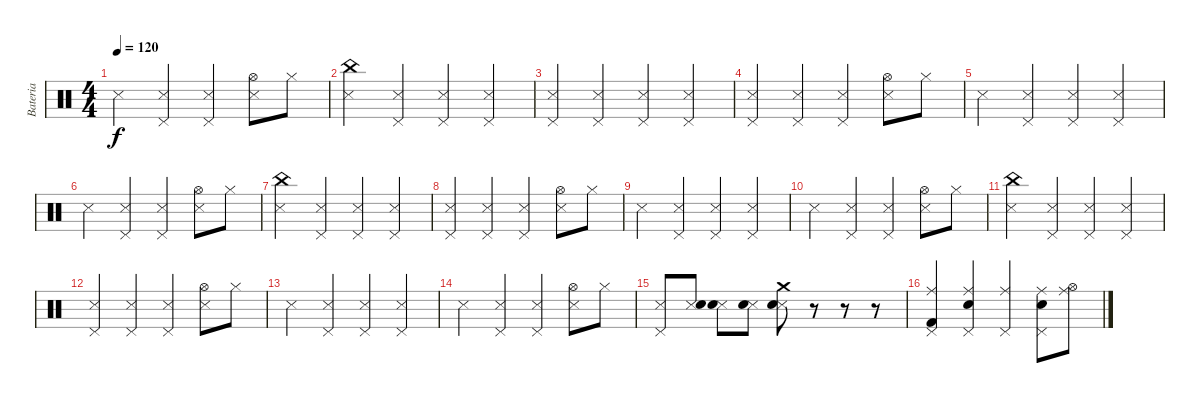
\track ("Bateria" "Bateria") {instrument percussion}
\staff {score}
\articulation defaults
\ts (4 4)
\tempo 120
\clef neutral
\ks c "Snare (side stick) 3".4{dy f}
("Snare (side stick) 3" "Pedal Hi-Hat (hit)").4 ("Snare (side stick) 3" "Pedal Hi-Hat (hit)").4 ("Snare (side stick) 3" "Hi-Hat (open)").8 "Hi-Hat (closed)".8 |
("Snare (side stick) 3" "China (hit)").4 ("Snare (side stick) 3" "Pedal Hi-Hat (hit)").4 ("Snare (side stick) 3" "Pedal Hi-Hat (hit)").4 ("Snare (side stick) 3" "Pedal Hi-Hat (hit)").4 |
("Snare (side stick) 3" "Pedal Hi-Hat (hit)").4 ("Snare (side stick) 3" "Pedal Hi-Hat (hit)").4 ("Snare (side stick) 3" "Pedal Hi-Hat (hit)").4 ("Snare (side stick) 3" "Pedal Hi-Hat (hit)").4 |
("Snare (side stick) 3" "Pedal Hi-Hat (hit)").4 ("Snare (side stick) 3" "Pedal Hi-Hat (hit)").4 ("Snare (side stick) 3" "Pedal Hi-Hat (hit)").4 ("Snare (side stick) 3" "Hi-Hat (open)").8 "Hi-Hat (closed)".8 |
"Snare (side stick) 3".4 ("Snare (side stick) 3" "Pedal Hi-Hat (hit)").4 ("Snare (side stick) 3" "Pedal Hi-Hat (hit)").4 ("Snare (side stick) 3" "Pedal Hi-Hat (hit)").4 |
"Snare (side stick) 3".4 ("Snare (side stick) 3" "Pedal Hi-Hat (hit)").4 ("Snare (side stick) 3" "Pedal Hi-Hat (hit)").4 ("Snare (side stick) 3" "Hi-Hat (open)").8 "Hi-Hat (closed)".8 |
("Snare (side stick) 3" "China (hit)").4 ("Snare (side stick) 3" "Pedal Hi-Hat (hit)").4 ("Snare (side stick) 3" "Pedal Hi-Hat (hit)").4 ("Snare (side stick) 3" "Pedal Hi-Hat (hit)").4 |
("Snare (side stick) 3" "Pedal Hi-Hat (hit)").4 ("Snare (side stick) 3" "Pedal Hi-Hat (hit)").4 ("Snare (side stick) 3" "Pedal Hi-Hat (hit)").4 ("Snare (side stick) 3" "Hi-Hat (open)").8 "Hi-Hat (closed)".8 |
"Snare (side stick) 3".4 ("Snare (side stick) 3" "Pedal Hi-Hat (hit)").4 ("Snare (side stick) 3" "Pedal Hi-Hat (hit)").4 ("Snare (side stick) 3" "Pedal Hi-Hat (hit)").4 |
"Snare (side stick) 3".4 ("Snare (side stick) 3" "Pedal Hi-Hat (hit)").4 ("Snare (side stick) 3" "Pedal Hi-Hat (hit)").4 ("Snare (side stick) 3" "Hi-Hat (open)").8 "Hi-Hat (closed)".8 |
("Snare (side stick) 3" "China (hit)").4 ("Snare (side stick) 3" "Pedal Hi-Hat (hit)").4 ("Snare (side stick) 3" "Pedal Hi-Hat (hit)").4 ("Snare (side stick) 3" "Pedal Hi-Hat (hit)").4 |
("Snare (side stick) 3" "Pedal Hi-Hat (hit)").4 ("Snare (side stick) 3" "Pedal Hi-Hat (hit)").4 ("Snare (side stick) 3" "Pedal Hi-Hat (hit)").4 ("Snare (side stick) 3" "Hi-Hat (open)").8 "Hi-Hat (closed)".8 |
"Snare (side stick) 3".4 ("Snare (side stick) 3" "Pedal Hi-Hat (hit)").4 ("Snare (side stick) 3" "Pedal Hi-Hat (hit)").4 ("Snare (side stick) 3" "Pedal Hi-Hat (hit)").4 |
"Snare (side stick) 3".4 ("Snare (side stick) 3" "Pedal Hi-Hat (hit)").4 ("Snare (side stick) 3" "Pedal Hi-Hat (hit)").4 ("Snare (side stick) 3" "Hi-Hat (open)").8 "Hi-Hat (closed)".8 |
("Snare (side stick) 3" "Pedal Hi-Hat (hit)").8{volume 6} ("Snare (side stick) 3" "Snare (hit) 2").8{volume 7} ("Snare (side stick) 3" "Snare (hit) 2").8{volume 9} ("Snare (side stick) 3" "Snare (hit) 2").8{volume 11} ("Snare (side stick) 3" "Snare (hit) 2" "Crash medium (hit)").8{volume 16} r.8 r.8 r.8 |
("Pedal Hi-Hat (hit)" "Kick (hit) 2" "Ride (middle)").4 ("Pedal Hi-Hat (hit)" "Electric Snare (hit)" "Ride (middle)").4 ("Pedal Hi-Hat (hit)" "Ride (middle)").4 ("Pedal Hi-Hat (hit)" "Electric Snare (hit)" "Ride (middle)").8 ("Hi-Hat (open)" "Ride (middle)").8
